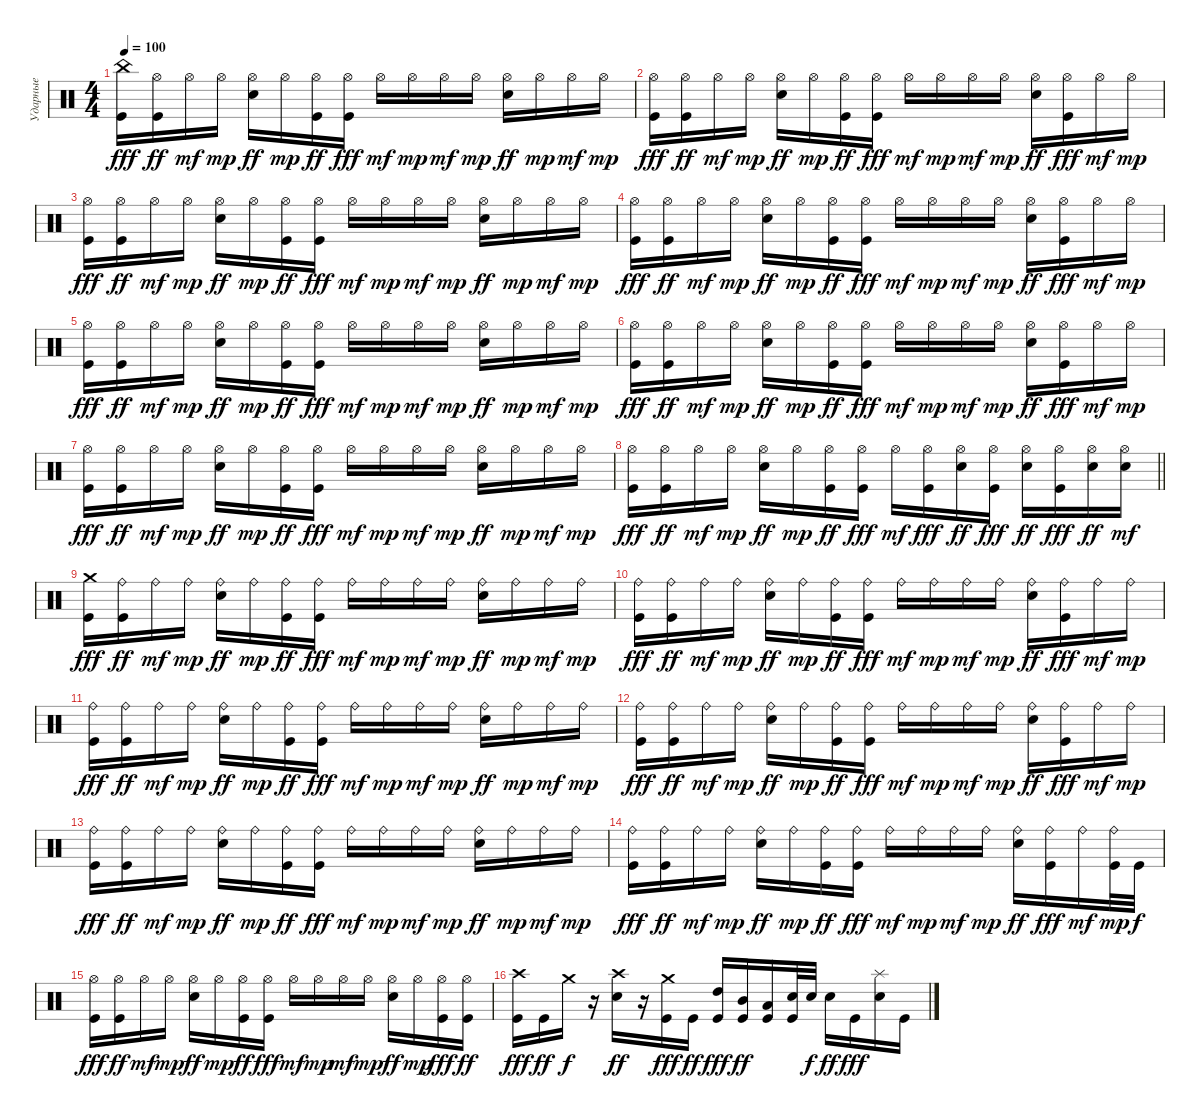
\track ("Ударные" "Ударные") {instrument percussion}
\staff {score}
\articulation defaults
\ts (4 4)
\tempo 100
\clef neutral
\ks c
("China (hit)" "Kick (hit)").16{dy fff} ("Hi-Hat (open)" "Kick (hit)").16{dy ff} "Hi-Hat (open)".16{dy mf} "Hi-Hat (open)".16{dy mp} ("Hi-Hat (open)" "Electric Snare (hit)").16{dy ff} "Hi-Hat (open)".16{dy mp} ("Hi-Hat (open)" "Kick (hit)").16{dy ff} ("Hi-Hat (open)" "Kick (hit)").16{dy fff} "Hi-Hat (open)".16{dy mf} "Hi-Hat (open)".16{dy mp} "Hi-Hat (open)".16{dy mf} "Hi-Hat (open)".16{dy mp} ("Hi-Hat (open)" "Electric Snare (hit)").16{dy ff} "Hi-Hat (open)".16{dy mp} "Hi-Hat (open)".16{dy mf} "Hi-Hat (open)".16{dy mp} |
("Hi-Hat (open)" "Kick (hit)").16{dy fff} ("Hi-Hat (open)" "Kick (hit)").16{dy ff} "Hi-Hat (open)".16{dy mf} "Hi-Hat (open)".16{dy mp} ("Hi-Hat (open)" "Electric Snare (hit)").16{dy ff} "Hi-Hat (open)".16{dy mp} ("Hi-Hat (open)" "Kick (hit)").16{dy ff} ("Hi-Hat (open)" "Kick (hit)").16{dy fff} "Hi-Hat (open)".16{dy mf} "Hi-Hat (open)".16{dy mp} "Hi-Hat (open)".16{dy mf} "Hi-Hat (open)".16{dy mp} ("Hi-Hat (open)" "Electric Snare (hit)").16{dy ff} ("Hi-Hat (open)" "Kick (hit)").16{dy fff} "Hi-Hat (open)".16{dy mf} "Hi-Hat (open)".16{dy mp} |
("Hi-Hat (open)" "Kick (hit)").16{dy fff} ("Hi-Hat (open)" "Kick (hit)").16{dy ff} "Hi-Hat (open)".16{dy mf} "Hi-Hat (open)".16{dy mp} ("Hi-Hat (open)" "Electric Snare (hit)").16{dy ff} "Hi-Hat (open)".16{dy mp} ("Hi-Hat (open)" "Kick (hit)").16{dy ff} ("Hi-Hat (open)" "Kick (hit)").16{dy fff} "Hi-Hat (open)".16{dy mf} "Hi-Hat (open)".16{dy mp} "Hi-Hat (open)".16{dy mf} "Hi-Hat (open)".16{dy mp} ("Hi-Hat (open)" "Electric Snare (hit)").16{dy ff} "Hi-Hat (open)".16{dy mp} "Hi-Hat (open)".16{dy mf} "Hi-Hat (open)".16{dy mp} |
("Hi-Hat (open)" "Kick (hit)").16{dy fff} ("Hi-Hat (open)" "Kick (hit)").16{dy ff} "Hi-Hat (open)".16{dy mf} "Hi-Hat (open)".16{dy mp} ("Hi-Hat (open)" "Electric Snare (hit)").16{dy ff} "Hi-Hat (open)".16{dy mp} ("Hi-Hat (open)" "Kick (hit)").16{dy ff} ("Hi-Hat (open)" "Kick (hit)").16{dy fff} "Hi-Hat (open)".16{dy mf} "Hi-Hat (open)".16{dy mp} "Hi-Hat (open)".16{dy mf} "Hi-Hat (open)".16{dy mp} ("Hi-Hat (open)" "Electric Snare (hit)").16{dy ff} ("Hi-Hat (open)" "Kick (hit)").16{dy fff} "Hi-Hat (open)".16{dy mf} "Hi-Hat (open)".16{dy mp} |
("Hi-Hat (open)" "Kick (hit)").16{dy fff} ("Hi-Hat (open)" "Kick (hit)").16{dy ff} "Hi-Hat (open)".16{dy mf} "Hi-Hat (open)".16{dy mp} ("Hi-Hat (open)" "Electric Snare (hit)").16{dy ff} "Hi-Hat (open)".16{dy mp} ("Hi-Hat (open)" "Kick (hit)").16{dy ff} ("Hi-Hat (open)" "Kick (hit)").16{dy fff} "Hi-Hat (open)".16{dy mf} "Hi-Hat (open)".16{dy mp} "Hi-Hat (open)".16{dy mf} "Hi-Hat (open)".16{dy mp} ("Hi-Hat (open)" "Electric Snare (hit)").16{dy ff} "Hi-Hat (open)".16{dy mp} "Hi-Hat (open)".16{dy mf} "Hi-Hat (open)".16{dy mp} |
("Hi-Hat (open)" "Kick (hit)").16{dy fff} ("Hi-Hat (open)" "Kick (hit)").16{dy ff} "Hi-Hat (open)".16{dy mf} "Hi-Hat (open)".16{dy mp} ("Hi-Hat (open)" "Electric Snare (hit)").16{dy ff} "Hi-Hat (open)".16{dy mp} ("Hi-Hat (open)" "Kick (hit)").16{dy ff} ("Hi-Hat (open)" "Kick (hit)").16{dy fff} "Hi-Hat (open)".16{dy mf} "Hi-Hat (open)".16{dy mp} "Hi-Hat (open)".16{dy mf} "Hi-Hat (open)".16{dy mp} ("Hi-Hat (open)" "Electric Snare (hit)").16{dy ff} ("Hi-Hat (open)" "Kick (hit)").16{dy fff} "Hi-Hat (open)".16{dy mf} "Hi-Hat (open)".16{dy mp} |
("Hi-Hat (open)" "Kick (hit)").16{dy fff} ("Hi-Hat (open)" "Kick (hit)").16{dy ff} "Hi-Hat (open)".16{dy mf} "Hi-Hat (open)".16{dy mp} ("Hi-Hat (open)" "Electric Snare (hit)").16{dy ff} "Hi-Hat (open)".16{dy mp} ("Hi-Hat (open)" "Kick (hit)").16{dy ff} ("Hi-Hat (open)" "Kick (hit)").16{dy fff} "Hi-Hat (open)".16{dy mf} "Hi-Hat (open)".16{dy mp} "Hi-Hat (open)".16{dy mf} "Hi-Hat (open)".16{dy mp} ("Hi-Hat (open)" "Electric Snare (hit)").16{dy ff} "Hi-Hat (open)".16{dy mp} "Hi-Hat (open)".16{dy mf} "Hi-Hat (open)".16{dy mp} |
\barLineRight lightlight
("Hi-Hat (open)" "Kick (hit)").16{dy fff} ("Hi-Hat (open)" "Kick (hit)").16{dy ff} "Hi-Hat (open)".16{dy mf} "Hi-Hat (open)".16{dy mp} ("Hi-Hat (open)" "Electric Snare (hit)").16{dy ff} "Hi-Hat (open)".16{dy mp} ("Hi-Hat (open)" "Kick (hit)").16{dy ff} ("Hi-Hat (open)" "Kick (hit)").16{dy fff} "Hi-Hat (open)".16{dy mf} ("Hi-Hat (open)" "Kick (hit)").16{dy fff} ("Hi-Hat (open)" "Electric Snare (hit)").16{dy ff} ("Hi-Hat (open)" "Kick (hit)").16{dy fff} ("Hi-Hat (open)" "Electric Snare (hit)").16{dy ff} ("Hi-Hat (open)" "Kick (hit)").16{dy fff} ("Hi-Hat (open)" "Electric Snare (hit)").16{dy ff} ("Hi-Hat (open)" "Electric Snare (hit)").16{dy mf} |
\section ("" "")
("Crash medium (hit)" "Kick (hit)").16{dy fff} ("Ride (bell)" "Kick (hit)").16{dy ff} "Ride (bell)".16{dy mf} "Ride (bell)".16{dy mp} ("Ride (bell)" "Electric Snare (hit)").16{dy ff} "Ride (bell)".16{dy mp} ("Ride (bell)" "Kick (hit)").16{dy ff} ("Ride (bell)" "Kick (hit)").16{dy fff} "Ride (bell)".16{dy mf} "Ride (bell)".16{dy mp} "Ride (bell)".16{dy mf} "Ride (bell)".16{dy mp} ("Ride (bell)" "Electric Snare (hit)").16{dy ff} "Ride (bell)".16{dy mp} "Ride (bell)".16{dy mf} "Ride (bell)".16{dy mp} |
("Ride (bell)" "Kick (hit)").16{dy fff} ("Ride (bell)" "Kick (hit)").16{dy ff} "Ride (bell)".16{dy mf} "Ride (bell)".16{dy mp} ("Ride (bell)" "Electric Snare (hit)").16{dy ff} "Ride (bell)".16{dy mp} ("Ride (bell)" "Kick (hit)").16{dy ff} ("Ride (bell)" "Kick (hit)").16{dy fff} "Ride (bell)".16{dy mf} "Ride (bell)".16{dy mp} "Ride (bell)".16{dy mf} "Ride (bell)".16{dy mp} ("Ride (bell)" "Electric Snare (hit)").16{dy ff} ("Ride (bell)" "Kick (hit)").16{dy fff} "Ride (bell)".16{dy mf} "Ride (bell)".16{dy mp} |
("Ride (bell)" "Kick (hit)").16{dy fff} ("Ride (bell)" "Kick (hit)").16{dy ff} "Ride (bell)".16{dy mf} "Ride (bell)".16{dy mp} ("Ride (bell)" "Electric Snare (hit)").16{dy ff} "Ride (bell)".16{dy mp} ("Ride (bell)" "Kick (hit)").16{dy ff} ("Ride (bell)" "Kick (hit)").16{dy fff} "Ride (bell)".16{dy mf} "Ride (bell)".16{dy mp} "Ride (bell)".16{dy mf} "Ride (bell)".16{dy mp} ("Ride (bell)" "Electric Snare (hit)").16{dy ff} "Ride (bell)".16{dy mp} "Ride (bell)".16{dy mf} "Ride (bell)".16{dy mp} |
("Ride (bell)" "Kick (hit)").16{dy fff} ("Ride (bell)" "Kick (hit)").16{dy ff} "Ride (bell)".16{dy mf} "Ride (bell)".16{dy mp} ("Ride (bell)" "Electric Snare (hit)").16{dy ff} "Ride (bell)".16{dy mp} ("Ride (bell)" "Kick (hit)").16{dy ff} ("Ride (bell)" "Kick (hit)").16{dy fff} "Ride (bell)".16{dy mf} "Ride (bell)".16{dy mp} "Ride (bell)".16{dy mf} "Ride (bell)".16{dy mp} ("Ride (bell)" "Electric Snare (hit)").16{dy ff} ("Ride (bell)" "Kick (hit)").16{dy fff} "Ride (bell)".16{dy mf} "Ride (bell)".16{dy mp} |
("Ride (bell)" "Kick (hit)").16{dy fff} ("Ride (bell)" "Kick (hit)").16{dy ff} "Ride (bell)".16{dy mf} "Ride (bell)".16{dy mp} ("Ride (bell)" "Electric Snare (hit)").16{dy ff} "Ride (bell)".16{dy mp} ("Ride (bell)" "Kick (hit)").16{dy ff} ("Ride (bell)" "Kick (hit)").16{dy fff} "Ride (bell)".16{dy mf} "Ride (bell)".16{dy mp} "Ride (bell)".16{dy mf} "Ride (bell)".16{dy mp} ("Ride (bell)" "Electric Snare (hit)").16{dy ff} "Ride (bell)".16{dy mp} "Ride (bell)".16{dy mf} "Ride (bell)".16{dy mp} |
("Ride (bell)" "Kick (hit)").16{dy fff} ("Ride (bell)" "Kick (hit)").16{dy ff} "Ride (bell)".16{dy mf} "Ride (bell)".16{dy mp} ("Ride (bell)" "Electric Snare (hit)").16{dy ff} "Ride (bell)".16{dy mp} ("Ride (bell)" "Kick (hit)").16{dy ff} ("Ride (bell)" "Kick (hit)").16{dy fff} "Ride (bell)".16{dy mf} "Ride (bell)".16{dy mp} "Ride (bell)".16{dy mf} "Ride (bell)".16{dy mp} ("Ride (bell)" "Electric Snare (hit)").16{dy ff} ("Ride (bell)" "Kick (hit)").16{dy fff} "Ride (bell)".16{dy mf} ("Ride (bell)" "Kick (hit)").32{dy mp} "Kick (hit)".32{dy f} |
("Hi-Hat (open)" "Kick (hit)").16{dy fff} ("Hi-Hat (open)" "Kick (hit)").16{dy ff} "Hi-Hat (open)".16{dy mf} "Hi-Hat (open)".16{dy mp} ("Hi-Hat (open)" "Electric Snare (hit)").16{dy ff} "Hi-Hat (open)".16{dy mp} ("Hi-Hat (open)" "Kick (hit)").16{dy ff} ("Hi-Hat (open)" "Kick (hit)").16{dy fff} "Hi-Hat (open)".16{dy mf} "Hi-Hat (open)".16{dy mp} "Hi-Hat (open)".16{dy mf} "Hi-Hat (open)".16{dy mp} ("Hi-Hat (open)" "Electric Snare (hit)").16{dy ff} "Hi-Hat (open)".16{dy mp} ("Hi-Hat (open)" "Kick (hit)").16{dy fff} ("Hi-Hat (open)" "Kick (hit)").16{dy ff} |
("Crash high (hit)" "Kick (hit)").16{dy fff} "Kick (hit)".16{dy ff} "Crash medium (hit)".16{dy f} r.16 ("Crash high (hit)" "Electric Snare (hit)").16{dy ff} r.16 ("Crash medium (hit)" "Kick (hit)").16{dy fff} "Kick (hit)".16{dy ff} ("High Tom (hit)" "Kick (hit)").16{dy fff} ("Mid Tom (hit)" "Kick (hit)").16{dy ff} ("Low Tom (hit)" "Kick (hit)").16 ("Electric Snare (hit)" "Kick (hit)").32 "Electric Snare (hit)".32{dy f} "Electric Snare (hit)".16{dy ff} "Kick (hit)".16{dy fff} ("Splash (hit)" "Electric Snare (hit)").16 "Kick (hit)".16
